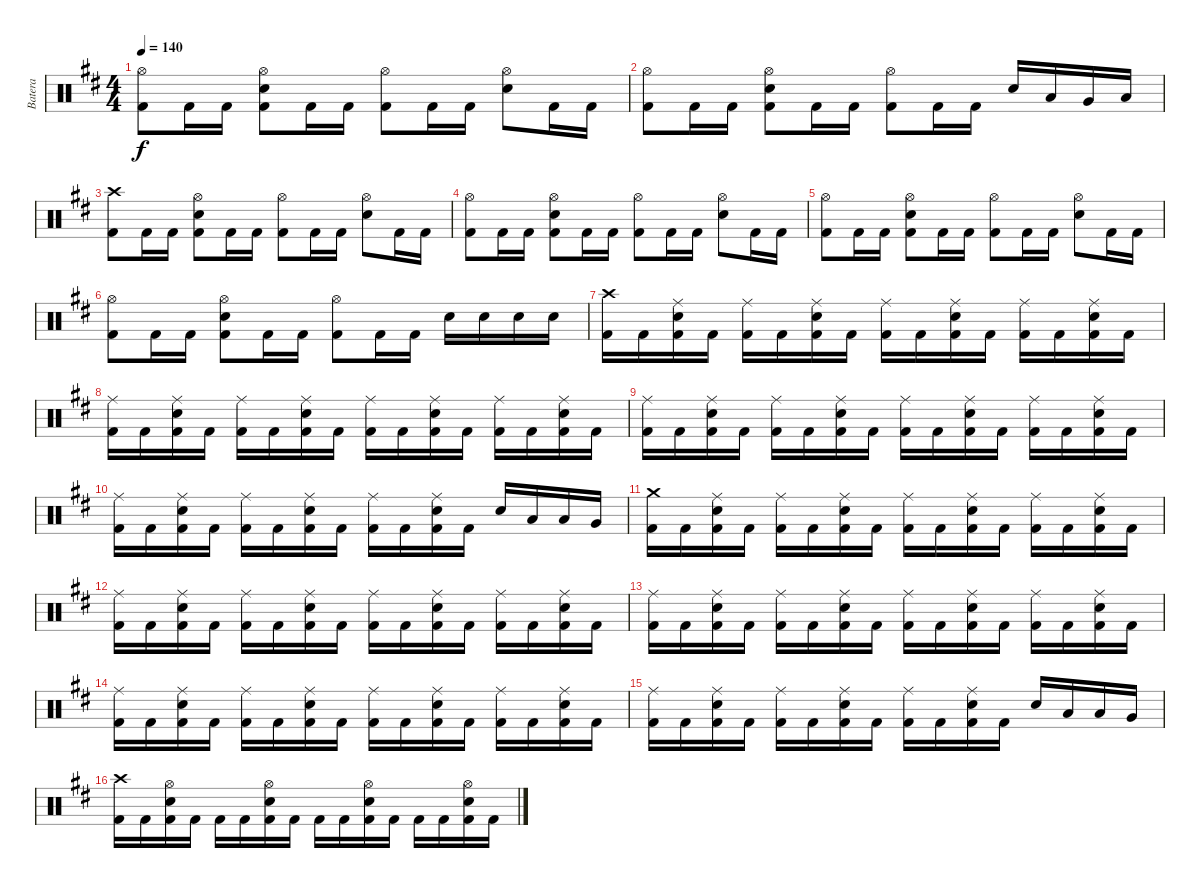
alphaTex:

\track ("Batera" "Batera") {instrument percussion}
\staff {score}
\articulation defaults
\ts (4 4)
\tempo 140
\clef neutral
\ks bminor
("Hi-Hat (open)" "Kick (hit) 2").8{dy f} "Kick (hit) 2".16 "Kick (hit) 2".16 ("Hi-Hat (open)" "Electric Snare (hit)" "Kick (hit) 2").8 "Kick (hit) 2".16 "Kick (hit) 2".16 ("Hi-Hat (open)" "Kick (hit) 2").8 "Kick (hit) 2".16 "Kick (hit) 2".16 ("Hi-Hat (open)" "Electric Snare (hit)").8 "Kick (hit) 2".16 "Kick (hit) 2".16 |
("Hi-Hat (open)" "Kick (hit) 2").8 "Kick (hit) 2".16 "Kick (hit) 2".16 ("Hi-Hat (open)" "Electric Snare (hit)" "Kick (hit) 2").8 "Kick (hit) 2".16 "Kick (hit) 2".16 ("Hi-Hat (open)" "Kick (hit) 2").8 "Kick (hit) 2".16 "Kick (hit) 2".16 "Electric Snare (hit)".16 "Low Floor Tom (hit)".16 "Very Low Tom (hit)".16 "Low Floor Tom (hit)".16 |
("Crash high (hit)" "Kick (hit) 2").8 "Kick (hit) 2".16 "Kick (hit) 2".16 ("Hi-Hat (open)" "Electric Snare (hit)" "Kick (hit) 2").8 "Kick (hit) 2".16 "Kick (hit) 2".16 ("Hi-Hat (open)" "Kick (hit) 2").8 "Kick (hit) 2".16 "Kick (hit) 2".16 ("Hi-Hat (open)" "Electric Snare (hit)").8 "Kick (hit) 2".16 "Kick (hit) 2".16 |
("Hi-Hat (open)" "Kick (hit) 2").8 "Kick (hit) 2".16 "Kick (hit) 2".16 ("Hi-Hat (open)" "Electric Snare (hit)" "Kick (hit) 2").8 "Kick (hit) 2".16 "Kick (hit) 2".16 ("Hi-Hat (open)" "Kick (hit) 2").8 "Kick (hit) 2".16 "Kick (hit) 2".16 ("Hi-Hat (open)" "Electric Snare (hit)").8 "Kick (hit) 2".16 "Kick (hit) 2".16 |
("Hi-Hat (open)" "Kick (hit) 2").8 "Kick (hit) 2".16 "Kick (hit) 2".16 ("Hi-Hat (open)" "Electric Snare (hit)" "Kick (hit) 2").8 "Kick (hit) 2".16 "Kick (hit) 2".16 ("Hi-Hat (open)" "Kick (hit) 2").8 "Kick (hit) 2".16 "Kick (hit) 2".16 ("Hi-Hat (open)" "Electric Snare (hit)").8 "Kick (hit) 2".16 "Kick (hit) 2".16 |
("Hi-Hat (open)" "Kick (hit) 2").8 "Kick (hit) 2".16 "Kick (hit) 2".16 ("Hi-Hat (open)" "Electric Snare (hit)" "Kick (hit) 2").8 "Kick (hit) 2".16 "Kick (hit) 2".16 ("Hi-Hat (open)" "Kick (hit) 2").8 "Kick (hit) 2".16 "Kick (hit) 2".16 "Electric Snare (hit)".16 "Electric Snare (hit)".16 "Electric Snare (hit)".16 "Electric Snare (hit)".16 |
("Crash high (hit)" "Kick (hit) 2").16 "Kick (hit) 2".16 ("Ride (middle)" "Electric Snare (hit)" "Kick (hit) 2").16 "Kick (hit) 2".16 ("Ride (middle)" "Kick (hit) 2").16 "Kick (hit) 2".16 ("Ride (middle)" "Electric Snare (hit)" "Kick (hit) 2").16 "Kick (hit) 2".16 ("Ride (middle)" "Kick (hit) 2").16 "Kick (hit) 2".16 ("Ride (middle)" "Electric Snare (hit)" "Kick (hit) 2").16 "Kick (hit) 2".16 ("Ride (middle)" "Kick (hit) 2").16 "Kick (hit) 2".16 ("Ride (middle)" "Electric Snare (hit)" "Kick (hit) 2").16 "Kick (hit) 2".16 |
("Ride (middle)" "Kick (hit) 2").16 "Kick (hit) 2".16 ("Ride (middle)" "Electric Snare (hit)" "Kick (hit) 2").16 "Kick (hit) 2".16 ("Ride (middle)" "Kick (hit) 2").16 "Kick (hit) 2".16 ("Ride (middle)" "Electric Snare (hit)" "Kick (hit) 2").16 "Kick (hit) 2".16 ("Ride (middle)" "Kick (hit) 2").16 "Kick (hit) 2".16 ("Ride (middle)" "Electric Snare (hit)" "Kick (hit) 2").16 "Kick (hit) 2".16 ("Ride (middle)" "Kick (hit) 2").16 "Kick (hit) 2".16 ("Ride (middle)" "Electric Snare (hit)" "Kick (hit) 2").16 "Kick (hit) 2".16 |
("Ride (middle)" "Kick (hit) 2").16 "Kick (hit) 2".16 ("Ride (middle)" "Electric Snare (hit)" "Kick (hit) 2").16 "Kick (hit) 2".16 ("Ride (middle)" "Kick (hit) 2").16 "Kick (hit) 2".16 ("Ride (middle)" "Electric Snare (hit)" "Kick (hit) 2").16 "Kick (hit) 2".16 ("Ride (middle)" "Kick (hit) 2").16 "Kick (hit) 2".16 ("Ride (middle)" "Electric Snare (hit)" "Kick (hit) 2").16 "Kick (hit) 2".16 ("Ride (middle)" "Kick (hit) 2").16 "Kick (hit) 2".16 ("Ride (middle)" "Electric Snare (hit)" "Kick (hit) 2").16 "Kick (hit) 2".16 |
("Ride (middle)" "Kick (hit) 2").16 "Kick (hit) 2".16 ("Ride (middle)" "Electric Snare (hit)" "Kick (hit) 2").16 "Kick (hit) 2".16 ("Ride (middle)" "Kick (hit) 2").16 "Kick (hit) 2".16 ("Ride (middle)" "Electric Snare (hit)" "Kick (hit) 2").16 "Kick (hit) 2".16 ("Ride (middle)" "Kick (hit) 2").16 "Kick (hit) 2".16 ("Ride (middle)" "Electric Snare (hit)" "Kick (hit) 2").16 "Kick (hit) 2".16 "Electric Snare (hit)".16 "Low Floor Tom (hit)".16 "Low Tom (hit)".16 "Very Low Tom (hit)".16 |
("Crash medium (hit)" "Kick (hit) 2").16 "Kick (hit) 2".16 ("Ride (middle)" "Electric Snare (hit)" "Kick (hit) 2").16 "Kick (hit) 2".16 ("Ride (middle)" "Kick (hit) 2").16 "Kick (hit) 2".16 ("Ride (middle)" "Electric Snare (hit)" "Kick (hit) 2").16 "Kick (hit) 2".16 ("Ride (middle)" "Kick (hit) 2").16 "Kick (hit) 2".16 ("Ride (middle)" "Electric Snare (hit)" "Kick (hit) 2").16 "Kick (hit) 2".16 ("Ride (middle)" "Kick (hit) 2").16 "Kick (hit) 2".16 ("Ride (middle)" "Electric Snare (hit)" "Kick (hit) 2").16 "Kick (hit) 2".16 |
("Ride (middle)" "Kick (hit) 2").16 "Kick (hit) 2".16 ("Ride (middle)" "Electric Snare (hit)" "Kick (hit) 2").16 "Kick (hit) 2".16 ("Ride (middle)" "Kick (hit) 2").16 "Kick (hit) 2".16 ("Ride (middle)" "Electric Snare (hit)" "Kick (hit) 2").16 "Kick (hit) 2".16 ("Ride (middle)" "Kick (hit) 2").16 "Kick (hit) 2".16 ("Ride (middle)" "Electric Snare (hit)" "Kick (hit) 2").16 "Kick (hit) 2".16 ("Ride (middle)" "Kick (hit) 2").16 "Kick (hit) 2".16 ("Ride (middle)" "Electric Snare (hit)" "Kick (hit) 2").16 "Kick (hit) 2".16 |
("Ride (middle)" "Kick (hit) 2").16 "Kick (hit) 2".16 ("Ride (middle)" "Electric Snare (hit)" "Kick (hit) 2").16 "Kick (hit) 2".16 ("Ride (middle)" "Kick (hit) 2").16 "Kick (hit) 2".16 ("Ride (middle)" "Electric Snare (hit)" "Kick (hit) 2").16 "Kick (hit) 2".16 ("Ride (middle)" "Kick (hit) 2").16 "Kick (hit) 2".16 ("Ride (middle)" "Electric Snare (hit)" "Kick (hit) 2").16 "Kick (hit) 2".16 ("Ride (middle)" "Kick (hit) 2").16 "Kick (hit) 2".16 ("Ride (middle)" "Electric Snare (hit)" "Kick (hit) 2").16 "Kick (hit) 2".16 |
("Ride (middle)" "Kick (hit) 2").16 "Kick (hit) 2".16 ("Ride (middle)" "Electric Snare (hit)" "Kick (hit) 2").16 "Kick (hit) 2".16 ("Ride (middle)" "Kick (hit) 2").16 "Kick (hit) 2".16 ("Ride (middle)" "Electric Snare (hit)" "Kick (hit) 2").16 "Kick (hit) 2".16 ("Ride (middle)" "Kick (hit) 2").16 "Kick (hit) 2".16 ("Ride (middle)" "Electric Snare (hit)" "Kick (hit) 2").16 "Kick (hit) 2".16 ("Ride (middle)" "Kick (hit) 2").16 "Kick (hit) 2".16 ("Ride (middle)" "Electric Snare (hit)" "Kick (hit) 2").16 "Kick (hit) 2".16 |
("Ride (middle)" "Kick (hit) 2").16 "Kick (hit) 2".16 ("Ride (middle)" "Electric Snare (hit)" "Kick (hit) 2").16 "Kick (hit) 2".16 ("Ride (middle)" "Kick (hit) 2").16 "Kick (hit) 2".16 ("Ride (middle)" "Electric Snare (hit)" "Kick (hit) 2").16 "Kick (hit) 2".16 ("Ride (middle)" "Kick (hit) 2").16 "Kick (hit) 2".16 ("Ride (middle)" "Electric Snare (hit)" "Kick (hit) 2").16 "Kick (hit) 2".16 "Electric Snare (hit)".16 "Low Floor Tom (hit)".16 "Low Tom (hit)".16 "Very Low Tom (hit)".16 |
("Crash high (hit)" "Kick (hit) 2").16 "Kick (hit) 2".16 ("Hi-Hat (open)" "Electric Snare (hit)" "Kick (hit) 2").16 "Kick (hit) 2".16 "Kick (hit) 2".16 "Kick (hit) 2".16 ("Hi-Hat (open)" "Electric Snare (hit)" "Kick (hit) 2").16 "Kick (hit) 2".16 "Kick (hit) 2".16 "Kick (hit) 2".16 ("Hi-Hat (open)" "Electric Snare (hit)" "Kick (hit) 2").16 "Kick (hit) 2".16 "Kick (hit) 2".16 "Kick (hit) 2".16 ("Hi-Hat (open)" "Electric Snare (hit)" "Kick (hit) 2").16 "Kick (hit) 2".16
